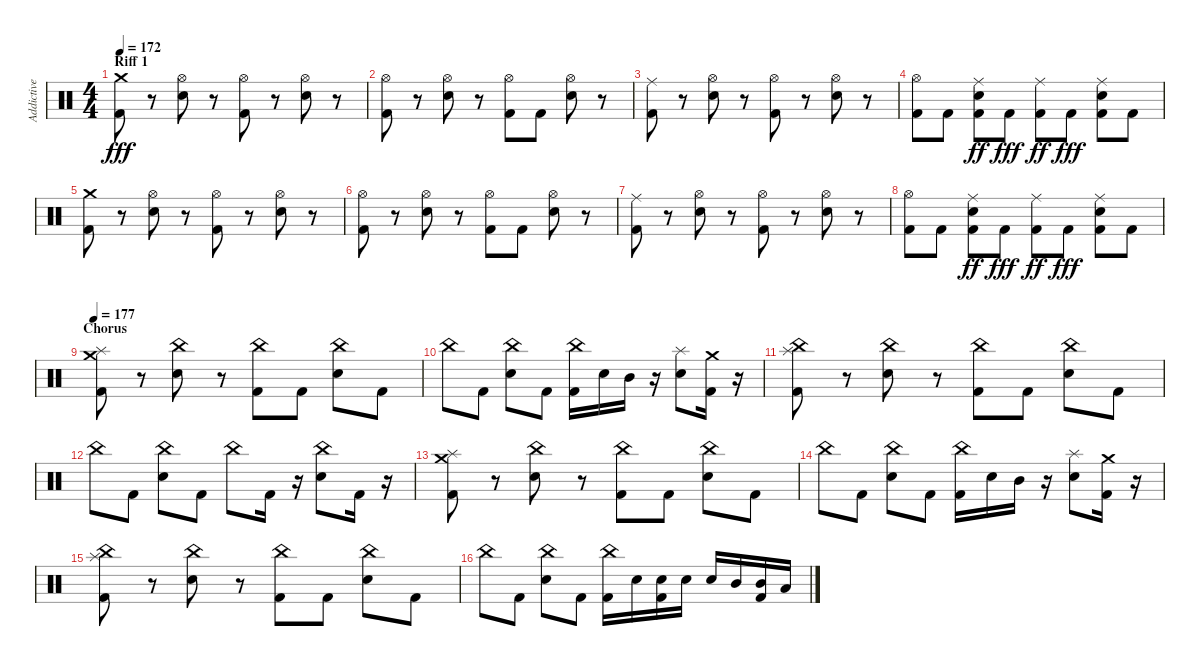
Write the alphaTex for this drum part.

\track ("Addictive" "Addictive") {instrument percussion}
\staff {score}
\articulation defaults
\ts (4 4)
\section ("" "Riff 1")
\tempo 172
\clef neutral
\ks c
("Kick (hit) 2" "Crash medium (hit)").8{dy fff} r.8 ("Snare (hit) 2" "Hi-Hat (open)").8 r.8 ("Kick (hit) 2" "Hi-Hat (open)").8 r.8 ("Snare (hit) 2" "Hi-Hat (open)").8 r.8 |
("Kick (hit) 2" "Hi-Hat (open)").8 r.8 ("Snare (hit) 2" "Hi-Hat (open)").8 r.8 ("Kick (hit) 2" "Hi-Hat (open)").8 "Kick (hit) 2".8 ("Snare (hit) 2" "Hi-Hat (open)").8 r.8 |
("Kick (hit) 2" "Ride (middle)").8 r.8 ("Snare (hit) 2" "Hi-Hat (open)").8 r.8 ("Kick (hit) 2" "Hi-Hat (open)").8 r.8 ("Snare (hit) 2" "Hi-Hat (open)").8 r.8 |
("Kick (hit) 2" "Hi-Hat (open)").8 "Kick (hit) 2".8 ("Kick (hit) 2" "Snare (hit) 2" "Ride (middle)").8{dy ff} "Kick (hit) 2".8{dy fff} ("Kick (hit) 2" "Ride (middle)").8{dy ff} "Kick (hit) 2".8{dy fff} ("Kick (hit) 2" "Snare (hit) 2" "Ride (middle)").8 "Kick (hit) 2".8 |
("Kick (hit) 2" "Crash medium (hit)").8 r.8 ("Snare (hit) 2" "Hi-Hat (open)").8 r.8 ("Kick (hit) 2" "Hi-Hat (open)").8 r.8 ("Snare (hit) 2" "Hi-Hat (open)").8 r.8 |
("Kick (hit) 2" "Hi-Hat (open)").8 r.8 ("Snare (hit) 2" "Hi-Hat (open)").8 r.8 ("Kick (hit) 2" "Hi-Hat (open)").8 "Kick (hit) 2".8 ("Snare (hit) 2" "Hi-Hat (open)").8 r.8 |
("Kick (hit) 2" "Ride (middle)").8 r.8 ("Snare (hit) 2" "Hi-Hat (open)").8 r.8 ("Kick (hit) 2" "Hi-Hat (open)").8 r.8 ("Snare (hit) 2" "Hi-Hat (open)").8 r.8 |
("Kick (hit) 2" "Hi-Hat (open)").8 "Kick (hit) 2".8 ("Kick (hit) 2" "Snare (hit) 2" "Ride (middle)").8{dy ff} "Kick (hit) 2".8{dy fff} ("Kick (hit) 2" "Ride (middle)").8{dy ff} "Kick (hit) 2".8{dy fff} ("Kick (hit) 2" "Snare (hit) 2" "Ride (middle)").8 "Kick (hit) 2".8 |
\section ("" "Chorus")
\tempo 177
("Kick (hit) 2" "Splash (hit)" "Crash medium (hit)").8 r.8 ("Snare (hit) 2" "China (hit)").8 r.8 ("Kick (hit) 2" "China (hit)").8 "Kick (hit) 2".8 ("Snare (hit) 2" "China (hit)").8 "Kick (hit) 2".8 |
"China (hit)".8 "Kick (hit) 2".8 ("Snare (hit) 2" "China (hit)").8 "Kick (hit) 2".8 ("Kick (hit) 2" "China (hit)").16 "Snare (hit) 2".16 "Mid Tom (hit)".16 r.16 ("Snare (hit) 2" "Splash (hit)").8 ("Kick (hit) 2" "Crash medium (hit)").16 r.16 |
("Kick (hit) 2" "Splash (hit)" "China (hit)").8 r.8 ("Snare (hit) 2" "China (hit)").8 r.8 ("Kick (hit) 2" "China (hit)").8 "Kick (hit) 2".8 ("Snare (hit) 2" "China (hit)").8 "Kick (hit) 2".8 |
"China (hit)".8 "Kick (hit) 2".8 ("Snare (hit) 2" "China (hit)").8 "Kick (hit) 2".8 "China (hit)".8 "Kick (hit) 2".16 r.16 ("Snare (hit) 2" "China (hit)").8 "Kick (hit) 2".16 r.16 |
("Kick (hit) 2" "Splash (hit)" "Crash medium (hit)").8 r.8 ("Snare (hit) 2" "China (hit)").8 r.8 ("Kick (hit) 2" "China (hit)").8 "Kick (hit) 2".8 ("Snare (hit) 2" "China (hit)").8 "Kick (hit) 2".8 |
"China (hit)".8 "Kick (hit) 2".8 ("Snare (hit) 2" "China (hit)").8 "Kick (hit) 2".8 ("Kick (hit) 2" "China (hit)").16 "Snare (hit) 2".16 "Mid Tom (hit)".16 r.16 ("Snare (hit) 2" "Splash (hit)").8 ("Kick (hit) 2" "Crash medium (hit)").16 r.16 |
("Kick (hit) 2" "Splash (hit)" "China (hit)").8 r.8 ("Snare (hit) 2" "China (hit)").8 r.8 ("Kick (hit) 2" "China (hit)").8 "Kick (hit) 2".8 ("Snare (hit) 2" "China (hit)").8 "Kick (hit) 2".8 |
"China (hit)".8 "Kick (hit) 2".8 ("Snare (hit) 2" "China (hit)").8 "Kick (hit) 2".8 ("Kick (hit) 2" "China (hit)").16 "Snare (hit) 2".16 ("Kick (hit) 2" "Snare (hit) 2").16 "Snare (hit) 2".16 "Snare (hit) 2".16 "Mid Tom (hit)".16 ("Kick (hit) 2" "Mid Tom (hit)").16 "Low Tom (hit)".16
